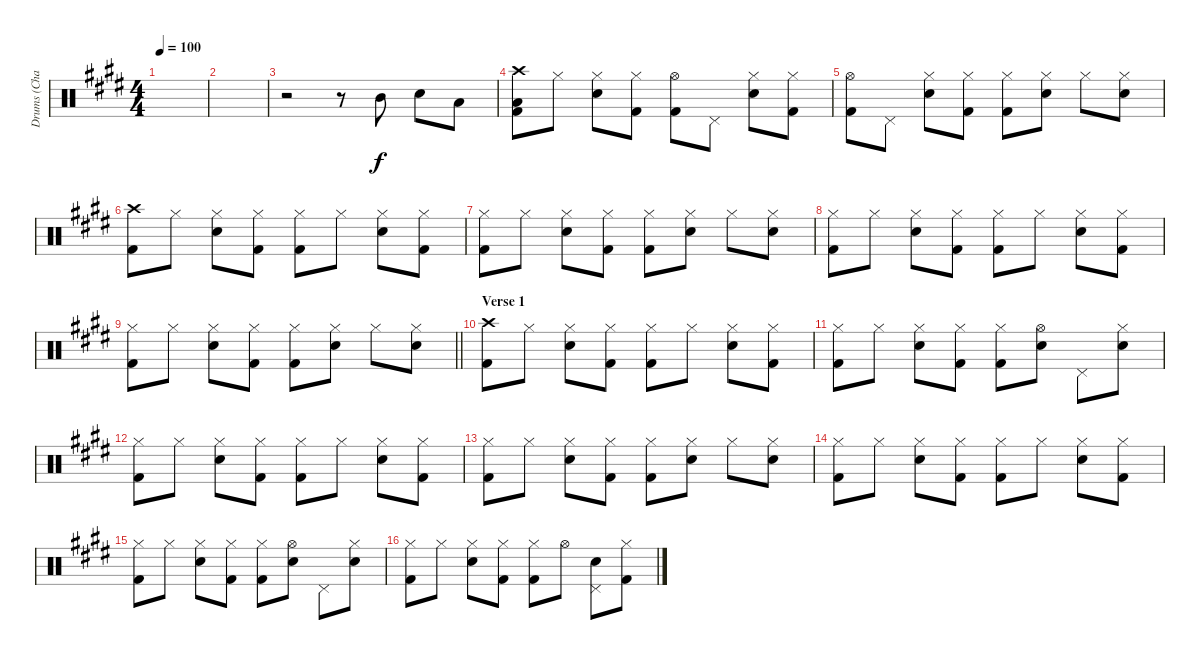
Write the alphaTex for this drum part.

\track ("Drums (Charlie)" "Drums (Cha") {instrument percussion}
\staff {score}
\articulation defaults
\ts (4 4)
\tempo 100
\clef neutral
\ks e
|
\ks c#minor
|
r.2 r.8 "Mid Tom (hit)".8 "Snare (hit) 2".8 "Low Tom (hit)".8 |
("Crash high (hit)" "Low Tom (hit)" "Kick (hit) 2").8 "Hi-Hat (closed)".8 ("Hi-Hat (closed)" "Snare (hit) 2").8 ("Hi-Hat (closed)" "Kick (hit) 2").8 ("Hi-Hat (open)" "Kick (hit) 2").8 "Pedal Hi-Hat (hit)".8 ("Hi-Hat (closed)" "Snare (hit) 2").8 ("Hi-Hat (closed)" "Kick (hit) 2").8 |
("Hi-Hat (open)" "Kick (hit) 2").8 "Pedal Hi-Hat (hit)".8 ("Hi-Hat (closed)" "Snare (hit) 2").8 ("Hi-Hat (closed)" "Kick (hit) 2").8 ("Hi-Hat (closed)" "Kick (hit) 2").8 ("Hi-Hat (closed)" "Snare (hit) 2").8 "Hi-Hat (closed)".8 ("Hi-Hat (closed)" "Snare (hit) 2").8 |
\ks e
("Crash high (hit)" "Kick (hit) 2").8 "Hi-Hat (closed)".8 ("Hi-Hat (closed)" "Snare (hit) 2").8 ("Hi-Hat (closed)" "Kick (hit) 2").8 ("Hi-Hat (closed)" "Kick (hit) 2").8 "Hi-Hat (closed)".8 ("Hi-Hat (closed)" "Snare (hit) 2").8 ("Hi-Hat (closed)" "Kick (hit) 2").8 |
\ks c#minor
("Hi-Hat (closed)" "Kick (hit) 2").8 "Hi-Hat (closed)".8 ("Hi-Hat (closed)" "Snare (hit) 2").8 ("Hi-Hat (closed)" "Kick (hit) 2").8 ("Hi-Hat (closed)" "Kick (hit) 2").8 ("Hi-Hat (closed)" "Snare (hit) 2").8 "Hi-Hat (closed)".8 ("Hi-Hat (closed)" "Snare (hit) 2").8 |
\ks e
("Hi-Hat (closed)" "Kick (hit) 2").8 "Hi-Hat (closed)".8 ("Hi-Hat (closed)" "Snare (hit) 2").8 ("Hi-Hat (closed)" "Kick (hit) 2").8 ("Hi-Hat (closed)" "Kick (hit) 2").8 "Hi-Hat (closed)".8 ("Hi-Hat (closed)" "Snare (hit) 2").8 ("Hi-Hat (closed)" "Kick (hit) 2").8 |
\barLineRight lightlight
\ks c#minor
("Hi-Hat (closed)" "Kick (hit) 2").8 "Hi-Hat (closed)".8 ("Hi-Hat (closed)" "Snare (hit) 2").8 ("Hi-Hat (closed)" "Kick (hit) 2").8 ("Hi-Hat (closed)" "Kick (hit) 2").8 ("Hi-Hat (closed)" "Snare (hit) 2").8 "Hi-Hat (closed)".8 ("Hi-Hat (closed)" "Snare (hit) 2").8 |
\section ("" "Verse 1")
\ks e
("Crash high (hit)" "Kick (hit) 2").8 "Hi-Hat (closed)".8 ("Hi-Hat (closed)" "Snare (hit) 2").8 ("Hi-Hat (closed)" "Kick (hit) 2").8 ("Hi-Hat (closed)" "Kick (hit) 2").8 "Hi-Hat (closed)".8 ("Hi-Hat (closed)" "Snare (hit) 2").8 ("Hi-Hat (closed)" "Kick (hit) 2").8 |
\ks c#minor
("Hi-Hat (closed)" "Kick (hit) 2").8 "Hi-Hat (closed)".8 ("Hi-Hat (closed)" "Snare (hit) 2").8 ("Hi-Hat (closed)" "Kick (hit) 2").8 ("Hi-Hat (closed)" "Kick (hit) 2").8 ("Hi-Hat (open)" "Snare (hit) 2").8 "Pedal Hi-Hat (hit)".8 ("Hi-Hat (closed)" "Snare (hit) 2").8 |
\ks e
("Hi-Hat (closed)" "Kick (hit) 2").8 "Hi-Hat (closed)".8 ("Hi-Hat (closed)" "Snare (hit) 2").8 ("Hi-Hat (closed)" "Kick (hit) 2").8 ("Hi-Hat (closed)" "Kick (hit) 2").8 "Hi-Hat (closed)".8 ("Hi-Hat (closed)" "Snare (hit) 2").8 ("Hi-Hat (closed)" "Kick (hit) 2").8 |
\ks c#minor
("Hi-Hat (closed)" "Kick (hit) 2").8 "Hi-Hat (closed)".8 ("Hi-Hat (closed)" "Snare (hit) 2").8 ("Hi-Hat (closed)" "Kick (hit) 2").8 ("Hi-Hat (closed)" "Kick (hit) 2").8 ("Hi-Hat (closed)" "Snare (hit) 2").8 "Hi-Hat (closed)".8 ("Hi-Hat (closed)" "Snare (hit) 2").8 |
\ks e
("Hi-Hat (closed)" "Kick (hit) 2").8 "Hi-Hat (closed)".8 ("Hi-Hat (closed)" "Snare (hit) 2").8 ("Hi-Hat (closed)" "Kick (hit) 2").8 ("Hi-Hat (closed)" "Kick (hit) 2").8 "Hi-Hat (closed)".8 ("Hi-Hat (closed)" "Snare (hit) 2").8 ("Hi-Hat (closed)" "Kick (hit) 2").8 |
\ks c#minor
("Hi-Hat (closed)" "Kick (hit) 2").8 "Hi-Hat (closed)".8 ("Hi-Hat (closed)" "Snare (hit) 2").8 ("Hi-Hat (closed)" "Kick (hit) 2").8 ("Hi-Hat (closed)" "Kick (hit) 2").8 ("Hi-Hat (open)" "Snare (hit) 2").8 "Pedal Hi-Hat (hit)".8 ("Hi-Hat (closed)" "Snare (hit) 2").8 |
\ks e
("Hi-Hat (closed)" "Kick (hit) 2").8 "Hi-Hat (closed)".8 ("Hi-Hat (closed)" "Snare (hit) 2").8 ("Hi-Hat (closed)" "Kick (hit) 2").8 ("Hi-Hat (closed)" "Kick (hit) 2").8 "Hi-Hat (open)".8 ("Pedal Hi-Hat (hit)" "Snare (hit) 2").8 ("Hi-Hat (closed)" "Kick (hit) 2").8
